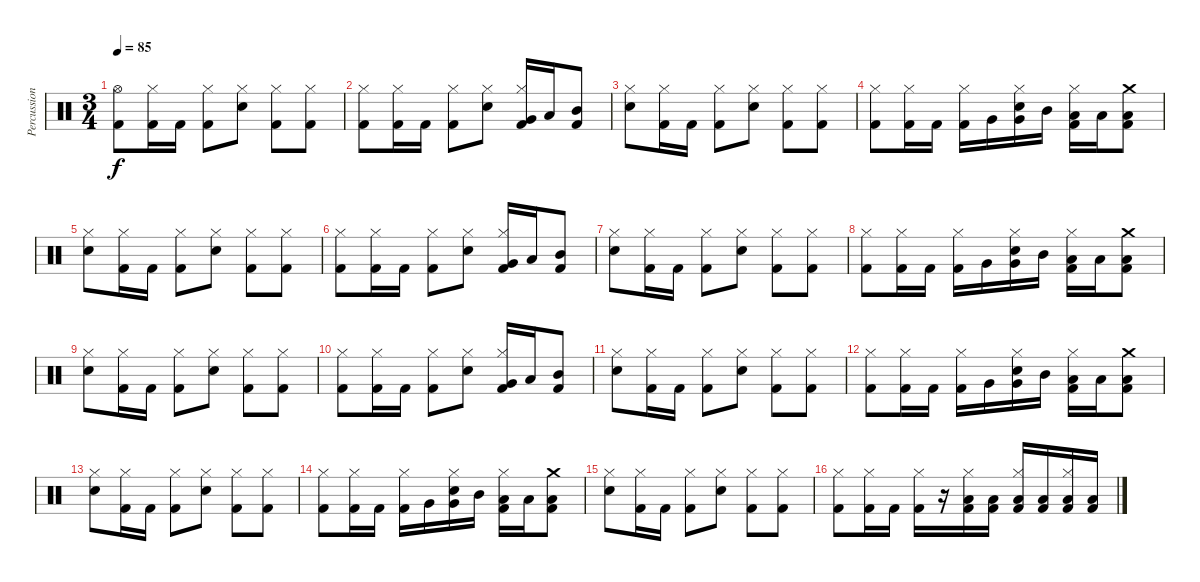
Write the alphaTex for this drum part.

\track ("Percussion" "Percussion") {instrument percussion}
\staff {score}
\articulation defaults
\ts (3 4)
\tempo 85
\clef neutral
\ks c
("Kick (hit) 2" "Hi-Hat (open)").8{dy f} ("Kick (hit) 2" "Hi-Hat (closed)").16 "Kick (hit) 2".16 ("Kick (hit) 2" "Hi-Hat (closed)").8 ("Snare (hit) 2" "Hi-Hat (closed)").8 ("Kick (hit) 2" "Hi-Hat (closed)").8 ("Kick (hit) 2" "Hi-Hat (closed)").8 |
("Kick (hit) 2" "Hi-Hat (closed)").8 ("Kick (hit) 2" "Hi-Hat (closed)").16 "Kick (hit) 2".16 ("Kick (hit) 2" "Hi-Hat (closed)").8 ("Snare (hit) 2" "Hi-Hat (closed)").8 ("Kick (hit) 2" "Very Low Tom (hit)" "Hi-Hat (closed)").16 "Low Tom (hit)".16 ("Kick (hit) 2" "Mid Tom (hit)").8 |
("Snare (hit) 2" "Hi-Hat (closed)").8 ("Kick (hit) 2" "Hi-Hat (closed)").16 "Kick (hit) 2".16 ("Kick (hit) 2" "Hi-Hat (closed)").8 ("Snare (hit) 2" "Hi-Hat (closed)").8 ("Kick (hit) 2" "Hi-Hat (closed)").8 ("Kick (hit) 2" "Hi-Hat (closed)").8 |
("Kick (hit) 2" "Hi-Hat (closed)").8 ("Kick (hit) 2" "Hi-Hat (closed)").16 "Kick (hit) 2".16 ("Kick (hit) 2" "Hi-Hat (closed)").16 "Very Low Tom (hit)".16 ("Snare (hit) 2" "Very Low Tom (hit)" "Hi-Hat (closed)").16 "Mid Tom (hit)".16 ("Kick (hit) 2" "Low Tom (hit)" "Hi-Hat (closed)").16 "Low Tom (hit)".16 ("Kick (hit) 2" "Low Tom (hit)" "Crash medium (hit)").8 |
("Snare (hit) 2" "Hi-Hat (closed)").8 ("Kick (hit) 2" "Hi-Hat (closed)").16 "Kick (hit) 2".16 ("Kick (hit) 2" "Hi-Hat (closed)").8 ("Snare (hit) 2" "Hi-Hat (closed)").8 ("Kick (hit) 2" "Hi-Hat (closed)").8 ("Kick (hit) 2" "Hi-Hat (closed)").8 |
("Kick (hit) 2" "Hi-Hat (closed)").8 ("Kick (hit) 2" "Hi-Hat (closed)").16 "Kick (hit) 2".16 ("Kick (hit) 2" "Hi-Hat (closed)").8 ("Snare (hit) 2" "Hi-Hat (closed)").8 ("Kick (hit) 2" "Very Low Tom (hit)" "Hi-Hat (closed)").16 "Low Tom (hit)".16 ("Kick (hit) 2" "Mid Tom (hit)").8 |
("Snare (hit) 2" "Hi-Hat (closed)").8 ("Kick (hit) 2" "Hi-Hat (closed)").16 "Kick (hit) 2".16 ("Kick (hit) 2" "Hi-Hat (closed)").8 ("Snare (hit) 2" "Hi-Hat (closed)").8 ("Kick (hit) 2" "Hi-Hat (closed)").8 ("Kick (hit) 2" "Hi-Hat (closed)").8 |
("Kick (hit) 2" "Hi-Hat (closed)").8 ("Kick (hit) 2" "Hi-Hat (closed)").16 "Kick (hit) 2".16 ("Kick (hit) 2" "Hi-Hat (closed)").16 "Very Low Tom (hit)".16 ("Snare (hit) 2" "Very Low Tom (hit)" "Hi-Hat (closed)").16 "Mid Tom (hit)".16 ("Kick (hit) 2" "Low Tom (hit)" "Hi-Hat (closed)").16 "Low Tom (hit)".16 ("Kick (hit) 2" "Low Tom (hit)" "Crash medium (hit)").8 |
("Snare (hit) 2" "Hi-Hat (closed)").8 ("Kick (hit) 2" "Hi-Hat (closed)").16 "Kick (hit) 2".16 ("Kick (hit) 2" "Hi-Hat (closed)").8 ("Snare (hit) 2" "Hi-Hat (closed)").8 ("Kick (hit) 2" "Hi-Hat (closed)").8 ("Kick (hit) 2" "Hi-Hat (closed)").8 |
("Kick (hit) 2" "Hi-Hat (closed)").8 ("Kick (hit) 2" "Hi-Hat (closed)").16 "Kick (hit) 2".16 ("Kick (hit) 2" "Hi-Hat (closed)").8 ("Snare (hit) 2" "Hi-Hat (closed)").8 ("Kick (hit) 2" "Very Low Tom (hit)" "Hi-Hat (closed)").16 "Low Tom (hit)".16 ("Kick (hit) 2" "Mid Tom (hit)").8 |
("Snare (hit) 2" "Hi-Hat (closed)").8 ("Kick (hit) 2" "Hi-Hat (closed)").16 "Kick (hit) 2".16 ("Kick (hit) 2" "Hi-Hat (closed)").8 ("Snare (hit) 2" "Hi-Hat (closed)").8 ("Kick (hit) 2" "Hi-Hat (closed)").8 ("Kick (hit) 2" "Hi-Hat (closed)").8 |
("Kick (hit) 2" "Hi-Hat (closed)").8 ("Kick (hit) 2" "Hi-Hat (closed)").16 "Kick (hit) 2".16 ("Kick (hit) 2" "Hi-Hat (closed)").16 "Very Low Tom (hit)".16 ("Snare (hit) 2" "Very Low Tom (hit)" "Hi-Hat (closed)").16 "Mid Tom (hit)".16 ("Kick (hit) 2" "Low Tom (hit)" "Hi-Hat (closed)").16 "Low Tom (hit)".16 ("Kick (hit) 2" "Low Tom (hit)" "Crash medium (hit)").8 |
("Snare (hit) 2" "Hi-Hat (closed)").8 ("Kick (hit) 2" "Hi-Hat (closed)").16 "Kick (hit) 2".16 ("Kick (hit) 2" "Hi-Hat (closed)").8 ("Snare (hit) 2" "Hi-Hat (closed)").8 ("Kick (hit) 2" "Hi-Hat (closed)").8 ("Kick (hit) 2" "Hi-Hat (closed)").8 |
("Kick (hit) 2" "Hi-Hat (closed)").8 ("Kick (hit) 2" "Hi-Hat (closed)").16 "Kick (hit) 2".16 ("Kick (hit) 2" "Hi-Hat (closed)").16 "Very Low Tom (hit)".16 ("Snare (hit) 2" "Very Low Tom (hit)" "Hi-Hat (closed)").16 "Mid Tom (hit)".16 ("Kick (hit) 2" "Low Tom (hit)" "Hi-Hat (closed)").16 "Low Tom (hit)".16 ("Kick (hit) 2" "Low Tom (hit)" "Crash medium (hit)").8 |
("Snare (hit) 2" "Hi-Hat (closed)").8 ("Kick (hit) 2" "Hi-Hat (closed)").16 "Kick (hit) 2".16 ("Kick (hit) 2" "Hi-Hat (closed)").8 ("Snare (hit) 2" "Hi-Hat (closed)").8 ("Kick (hit) 2" "Hi-Hat (closed)").8 ("Kick (hit) 2" "Hi-Hat (closed)").8 |
("Kick (hit) 2" "Hi-Hat (closed)").8 ("Kick (hit) 2" "Hi-Hat (closed)").16 "Kick (hit) 2".16 ("Kick (hit) 2" "Hi-Hat (closed)").16 r.16 ("Kick (hit) 2" "Low Tom (hit)" "Hi-Hat (closed)").16 ("Kick (hit) 2" "Low Tom (hit)").16 ("Kick (hit) 2" "Low Tom (hit)" "Hi-Hat (closed)").16 ("Kick (hit) 2" "Low Tom (hit)").16 ("Kick (hit) 2" "Low Tom (hit)" "Hi-Hat (closed)").16 ("Kick (hit) 2" "Low Tom (hit)").16
